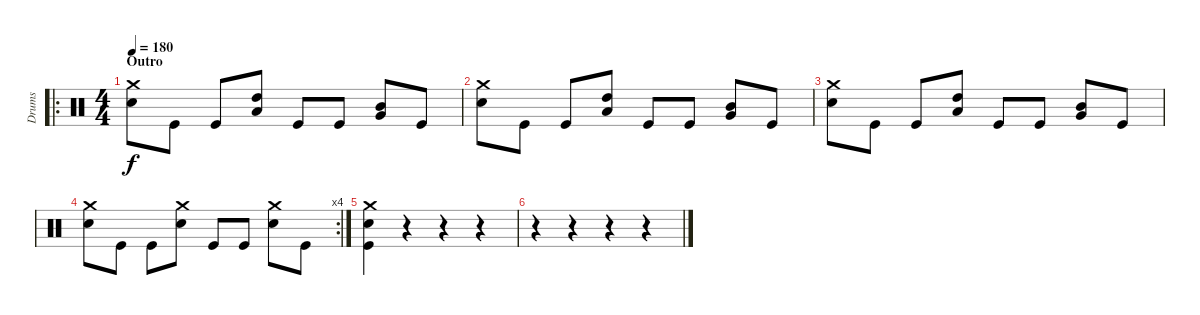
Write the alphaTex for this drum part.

\track ("Drums" "Drums") {instrument percussion}
\staff {score}
\articulation defaults
\ro
\ts (4 4)
\section ("" "Outro")
\tempo 180
\clef neutral
\ks c
("Crash medium (hit)" "Electric Snare (hit)").8{dy f} "Kick (hit)".8 "Kick (hit)".8 ("High Tom (hit)" "Low Tom (hit)").8 "Kick (hit)".8 "Kick (hit)".8 ("Mid Tom (hit)" "Very Low Tom (hit)").8 "Kick (hit)".8 |
("Crash medium (hit)" "Electric Snare (hit)").8 "Kick (hit)".8 "Kick (hit)".8 ("High Tom (hit)" "Low Tom (hit)").8 "Kick (hit)".8 "Kick (hit)".8 ("Mid Tom (hit)" "Very Low Tom (hit)").8 "Kick (hit)".8 |
("Crash medium (hit)" "Electric Snare (hit)").8 "Kick (hit)".8 "Kick (hit)".8 ("High Tom (hit)" "Low Tom (hit)").8 "Kick (hit)".8 "Kick (hit)".8 ("Mid Tom (hit)" "Very Low Tom (hit)").8 "Kick (hit)".8 |
\rc 4
("Crash medium (hit)" "Electric Snare (hit)").8 "Kick (hit)".8 "Kick (hit)".8 ("Crash medium (hit)" "Electric Snare (hit)").8 "Kick (hit)".8 "Kick (hit)".8 ("Crash medium (hit)" "Electric Snare (hit)").8 "Kick (hit)".8 |
("Crash medium (hit)" "Electric Snare (hit)" "Kick (hit)").4 r.4 r.4 r.4 |
r.4 r.4 r.4 r.4
